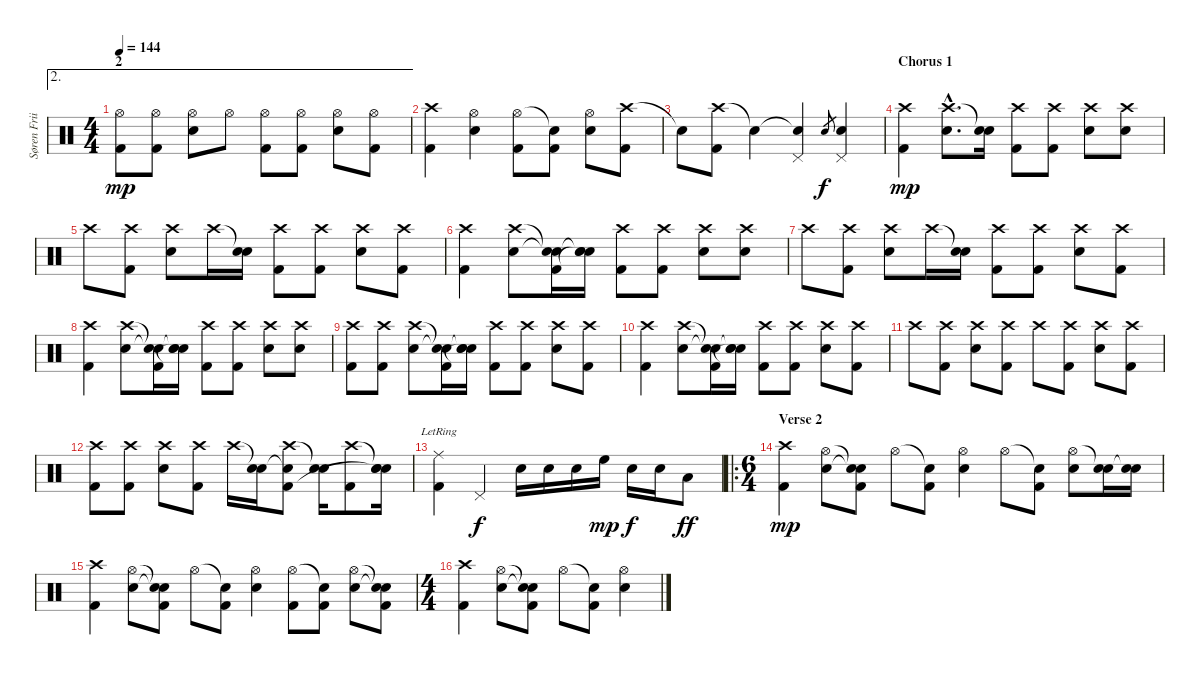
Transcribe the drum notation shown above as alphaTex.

\track ("Søren Friis" "Søren Frii") {instrument percussion}
\staff {score}
\articulation defaults
\ae 2
\ts (4 4)
\section ("" "2")
\tempo 144
\clef neutral
\ks c
("Hi-Hat (open)" "Kick (hit) 2").8{dy mp} ("Hi-Hat (open)" "Kick (hit) 2").8 ("Hi-Hat (open)" "Snare (hit) 2").8 "Hi-Hat (open)".8 ("Hi-Hat (open)" "Kick (hit) 2").8 ("Hi-Hat (open)" "Kick (hit) 2").8 ("Hi-Hat (open)" "Snare (hit) 2").8 ("Hi-Hat (open)" "Kick (hit) 2").8 |
\section ("" "")
("Crash high (hit)" "Kick (hit) 2").4 ("Hi-Hat (open)" "Snare (hit) 2").4 ("Hi-Hat (open)" "Kick (hit) 2").8 ("Snare (hit)"{t} "Kick (hit) 2").8 ("Hi-Hat (open)" "Snare (hit) 2").8 ("Crash high (hit)" "Kick (hit) 2").8 |
"Snare (hit)"{t}.8 ("Crash high (hit)" "Kick (hit) 2").8 "Snare (hit)"{t}.4 ("Snare (hit)"{t} "Pedal Hi-Hat (hit)").4 "Snare (hit) 2".8{gr dy f} ("Snare (hit) 2" "Pedal Hi-Hat (hit)").4 |
\section ("" "Chorus 1")
("Crash high (hit)" "Kick (hit) 2").4{dy mp} ("Crash high (hit)"{hac} "Snare (hit) 2"{hac}).8{d} ("Snare (hit)"{t} "Snare (hit) 2").16 ("Crash high (hit)" "Kick (hit) 2").8 ("Crash high (hit)" "Kick (hit) 2").8 ("Crash high (hit)" "Snare (hit) 2").8 ("Crash high (hit)" "Snare (hit) 2").8 |
"Crash high (hit)".8 ("Crash high (hit)" "Kick (hit) 2").8 ("Crash high (hit)" "Snare (hit) 2").8 "Crash high (hit)".16 ("Snare (hit)"{t} "Snare (hit) 2").16 ("Crash high (hit)" "Kick (hit) 2").8 ("Crash high (hit)" "Kick (hit) 2").8 ("Crash high (hit)" "Snare (hit) 2").8 ("Crash high (hit)" "Kick (hit) 2").8 |
("Crash high (hit)" "Kick (hit) 2").4 ("Crash high (hit)" "Snare (hit) 2").8 ("Snare (hit)"{t} "Snare (hit)"{t} "Kick (hit) 2").16 ("Snare (hit)"{t} "Snare (hit) 2" "Snare (hit)"{t}).16 ("Crash high (hit)" "Kick (hit) 2").8 ("Crash high (hit)" "Kick (hit) 2").8 ("Crash high (hit)" "Snare (hit) 2").8 ("Crash high (hit)" "Snare (hit) 2").8 |
"Crash high (hit)".8 ("Crash high (hit)" "Kick (hit) 2").8 ("Crash high (hit)" "Snare (hit) 2").8 "Crash high (hit)".16 ("Snare (hit)"{t} "Snare (hit) 2").16 ("Crash high (hit)" "Kick (hit) 2").8 ("Crash high (hit)" "Kick (hit) 2").8 ("Crash high (hit)" "Snare (hit) 2").8 ("Crash high (hit)" "Kick (hit) 2").8 |
("Crash high (hit)" "Kick (hit) 2").4 ("Crash high (hit)" "Snare (hit) 2").8 ("Snare (hit)"{t} "Snare (hit)"{t} "Kick (hit) 2").16 ("Snare (hit)"{t} "Snare (hit) 2" "Snare (hit)"{t}).16 ("Crash high (hit)" "Kick (hit) 2").8 ("Crash high (hit)" "Kick (hit) 2").8 ("Crash high (hit)" "Snare (hit) 2").8 ("Crash high (hit)" "Snare (hit) 2").8 |
("Crash high (hit)" "Kick (hit) 2").8 ("Crash high (hit)" "Kick (hit) 2").8 ("Crash high (hit)" "Snare (hit) 2").8 ("Snare (hit)"{t} "Snare (hit)"{t} "Kick (hit) 2").16 ("Snare (hit)"{t} "Snare (hit) 2" "Snare (hit)"{t}).16 ("Crash high (hit)" "Kick (hit) 2").8 ("Crash high (hit)" "Kick (hit) 2").8 ("Crash high (hit)" "Snare (hit) 2").8 ("Crash high (hit)" "Kick (hit) 2").8 |
("Crash high (hit)" "Kick (hit) 2").4 ("Crash high (hit)" "Snare (hit) 2").8 ("Snare (hit)"{t} "Snare (hit)"{t} "Kick (hit) 2").16 ("Snare (hit)"{t} "Snare (hit) 2" "Snare (hit)"{t}).16 ("Crash high (hit)" "Kick (hit) 2").8 ("Crash high (hit)" "Kick (hit) 2").8 ("Crash high (hit)" "Snare (hit) 2").8 ("Crash high (hit)" "Kick (hit) 2").8 |
"Crash high (hit)".8 ("Crash high (hit)" "Kick (hit) 2").8 ("Crash high (hit)" "Snare (hit) 2").8 ("Crash high (hit)" "Kick (hit) 2").8 "Crash high (hit)".8 ("Crash high (hit)" "Kick (hit) 2").8 ("Crash high (hit)" "Snare (hit) 2").8 ("Crash high (hit)" "Kick (hit) 2").8 |
("Crash high (hit)" "Kick (hit) 2").8 ("Crash high (hit)" "Kick (hit) 2").8 ("Crash high (hit)" "Snare (hit) 2").8 ("Crash high (hit)" "Kick (hit) 2").8 "Crash high (hit)".16 ("Snare (hit)"{t} "Snare (hit) 2").16 ("Crash high (hit)" "Snare (hit)"{t} "Kick (hit) 2").8 ("Snare (hit)"{t} "Snare (hit) 2").16 ("Crash high (hit)" "Kick (hit) 2").8 ("Snare (hit)"{t} "Snare (hit) 2" "Snare (hit)"{t}).16 |
("Ride (middle)"{lr} "Kick (hit) 2").4 "Pedal Hi-Hat (hit)".4{dy f} "Snare (hit) 2".16 "Snare (hit) 2".16 "Snare (hit) 2".16 "High Floor Tom (hit)".16{dy mp} "Snare (hit) 2".16{dy f} "Snare (hit) 2".16 "Low Tom (hit)".8{dy ff} |
\ro
\ts (6 4)
\section ("" "Verse 2")
("Crash high (hit)" "Kick (hit) 2").4{dy mp} ("Hi-Hat (open)" "Snare (hit) 2").8 ("Snare (hit)"{t} "Snare (hit)"{t} "Kick (hit) 2").8 "Hi-Hat (open)".8 ("Snare (hit)"{t} "Kick (hit) 2").8 ("Hi-Hat (open)" "Snare (hit) 2").4 "Hi-Hat (open)".8 ("Snare (hit)"{t} "Kick (hit) 2").8 ("Hi-Hat (open)" "Snare (hit) 2").8 ("Snare (hit)"{t} "Snare (hit) 2").16 ("Snare (hit)"{t} "Snare (hit) 2").16 |
("Crash high (hit)" "Kick (hit) 2").4 ("Hi-Hat (open)" "Snare (hit) 2").8 ("Snare (hit)"{t} "Snare (hit)"{t} "Kick (hit) 2").8 "Hi-Hat (open)".8 ("Snare (hit)"{t} "Kick (hit) 2").8 ("Hi-Hat (open)" "Snare (hit) 2").4 ("Hi-Hat (open)" "Kick (hit) 2").8 ("Snare (hit)"{t} "Kick (hit) 2").8 ("Hi-Hat (open)" "Snare (hit) 2").8 ("Snare (hit)"{t} "Snare (hit) 2"{t} "Kick (hit) 2").8 |
\ts (4 4)
("Crash high (hit)" "Kick (hit) 2").4 ("Hi-Hat (open)" "Snare (hit) 2").8 ("Snare (hit)"{t} "Snare (hit)"{t} "Kick (hit) 2").8 "Hi-Hat (open)".8 ("Snare (hit)"{t} "Kick (hit) 2").8 ("Hi-Hat (open)" "Snare (hit) 2").4
